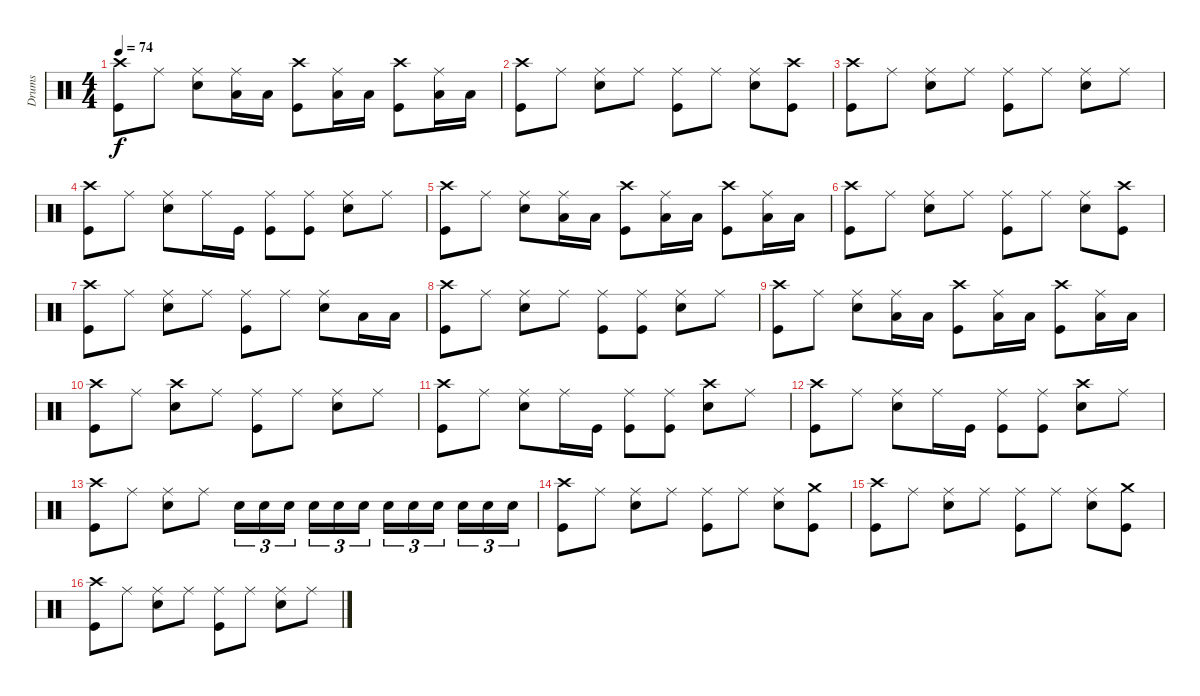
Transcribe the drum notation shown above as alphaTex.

\track ("Drums" "Drums") {instrument percussion}
\staff {score}
\articulation defaults
\ts (4 4)
\tempo 74
\clef neutral
\ks c
("Crash high (hit)" "Kick (hit)").8{dy f} "Ride (middle)".8 ("Ride (middle)" "Electric Snare (hit)").8 ("Ride (middle)" "Low Floor Tom (hit)").16 "Low Floor Tom (hit)".16 ("Crash high (hit)" "Kick (hit)").8 ("Ride (middle)" "Low Floor Tom (hit)").16 "Low Floor Tom (hit)".16 ("Crash high (hit)" "Kick (hit)").8 ("Ride (middle)" "Low Floor Tom (hit)").16 "Low Floor Tom (hit)".16 |
("Crash high (hit)" "Kick (hit)").8 "Ride (middle)".8 ("Ride (middle)" "Electric Snare (hit)").8 "Ride (middle)".8 ("Ride (middle)" "Kick (hit)").8 "Ride (middle)".8 ("Ride (middle)" "Electric Snare (hit)").8 ("Crash high (hit)" "Kick (hit)").8 |
("Crash high (hit)" "Kick (hit)").8 "Ride (middle)".8 ("Ride (middle)" "Electric Snare (hit)").8 "Ride (middle)".8 ("Ride (middle)" "Kick (hit)").8 "Ride (middle)".8 ("Ride (middle)" "Electric Snare (hit)").8 "Ride (middle)".8 |
("Crash high (hit)" "Kick (hit)").8 "Ride (middle)".8 ("Ride (middle)" "Electric Snare (hit)").8 "Ride (middle)".16 "Kick (hit)".16 ("Ride (middle)" "Kick (hit)").8 ("Ride (middle)" "Kick (hit)").8 ("Ride (middle)" "Electric Snare (hit)").8 "Ride (middle)".8 |
("Crash high (hit)" "Kick (hit)").8 "Ride (middle)".8 ("Ride (middle)" "Electric Snare (hit)").8 ("Ride (middle)" "Low Floor Tom (hit)").16 "Low Floor Tom (hit)".16 ("Crash high (hit)" "Kick (hit)").8 ("Ride (middle)" "Low Floor Tom (hit)").16 "Low Floor Tom (hit)".16 ("Crash high (hit)" "Kick (hit)").8 ("Ride (middle)" "Low Floor Tom (hit)").16 "Low Floor Tom (hit)".16 |
("Crash high (hit)" "Kick (hit)").8 "Ride (middle)".8 ("Ride (middle)" "Electric Snare (hit)").8 "Ride (middle)".8 ("Ride (middle)" "Kick (hit)").8 "Ride (middle)".8 ("Ride (middle)" "Electric Snare (hit)").8 ("Crash high (hit)" "Kick (hit)").8 |
("Crash high (hit)" "Kick (hit)").8 "Ride (middle)".8 ("Ride (middle)" "Electric Snare (hit)").8 "Ride (middle)".8 ("Ride (middle)" "Kick (hit)").8 "Ride (middle)".8 ("Ride (middle)" "Electric Snare (hit)").8 "Low Tom (hit)".16 "Low Tom (hit)".16 |
("Crash high (hit)" "Kick (hit)").8 "Ride (middle)".8 ("Ride (middle)" "Electric Snare (hit)").8 "Ride (middle)".8 ("Ride (middle)" "Kick (hit)").8 ("Ride (middle)" "Kick (hit)").8 ("Ride (middle)" "Electric Snare (hit)").8 "Ride (middle)".8 |
("Crash high (hit)" "Kick (hit)").8 "Ride (middle)".8 ("Ride (middle)" "Electric Snare (hit)").8 ("Ride (middle)" "Low Floor Tom (hit)").16 "Low Floor Tom (hit)".16 ("Crash high (hit)" "Kick (hit)").8 ("Ride (middle)" "Low Floor Tom (hit)").16 "Low Floor Tom (hit)".16 ("Crash high (hit)" "Kick (hit)").8 ("Ride (middle)" "Low Floor Tom (hit)").16 "Low Floor Tom (hit)".16 |
("Crash high (hit)" "Kick (hit)").8 "Ride (middle)".8 ("Crash high (hit)" "Electric Snare (hit)").8 "Ride (middle)".8 ("Ride (middle)" "Kick (hit)").8 "Ride (middle)".8 ("Ride (middle)" "Electric Snare (hit)").8 "Ride (middle)".8 |
("Crash high (hit)" "Kick (hit)").8 "Ride (middle)".8 ("Ride (middle)" "Electric Snare (hit)").8 "Ride (middle)".16 "Kick (hit)".16 ("Ride (middle)" "Kick (hit)").8 ("Ride (middle)" "Kick (hit)").8 ("Crash high (hit)" "Electric Snare (hit)").8 "Ride (middle)".8 |
("Crash high (hit)" "Kick (hit)").8 "Ride (middle)".8 ("Ride (middle)" "Electric Snare (hit)").8 "Ride (middle)".16 "Kick (hit)".16 ("Ride (middle)" "Kick (hit)").8 ("Ride (middle)" "Kick (hit)").8 ("Crash high (hit)" "Electric Snare (hit)").8 "Ride (middle)".8 |
("Crash high (hit)" "Kick (hit)").8 "Ride (middle)".8 ("Ride (middle)" "Electric Snare (hit)").8 "Ride (middle)".8 "Electric Snare (hit)".16{tu (3 2)} "Electric Snare (hit)".16{tu (3 2)} "Electric Snare (hit)".16{tu (3 2)} "Electric Snare (hit)".16{tu (3 2)} "Electric Snare (hit)".16{tu (3 2)} "Electric Snare (hit)".16{tu (3 2)} "Electric Snare (hit)".16{tu (3 2)} "Electric Snare (hit)".16{tu (3 2)} "Electric Snare (hit)".16{tu (3 2)} "Electric Snare (hit)".16{tu (3 2)} "Electric Snare (hit)".16{tu (3 2)} "Electric Snare (hit)".16{tu (3 2)} |
("Crash high (hit)" "Kick (hit)").8 "Ride (middle)".8 ("Ride (middle)" "Electric Snare (hit)").8 "Ride (middle)".8 ("Ride (middle)" "Kick (hit)").8 "Ride (middle)".8 ("Ride (middle)" "Electric Snare (hit)").8 ("Crash medium (hit)" "Kick (hit)").8 |
("Crash high (hit)" "Kick (hit)").8 "Ride (middle)".8 ("Ride (middle)" "Electric Snare (hit)").8 "Ride (middle)".8 ("Ride (middle)" "Kick (hit)").8 "Ride (middle)".8 ("Ride (middle)" "Electric Snare (hit)").8 ("Crash medium (hit)" "Kick (hit)").8 |
("Crash high (hit)" "Kick (hit)").8 "Ride (middle)".8 ("Ride (middle)" "Electric Snare (hit)").8 "Ride (middle)".8 ("Ride (middle)" "Kick (hit)").8 "Ride (middle)".8 ("Ride (middle)" "Electric Snare (hit)").8 "Ride (middle)".8
